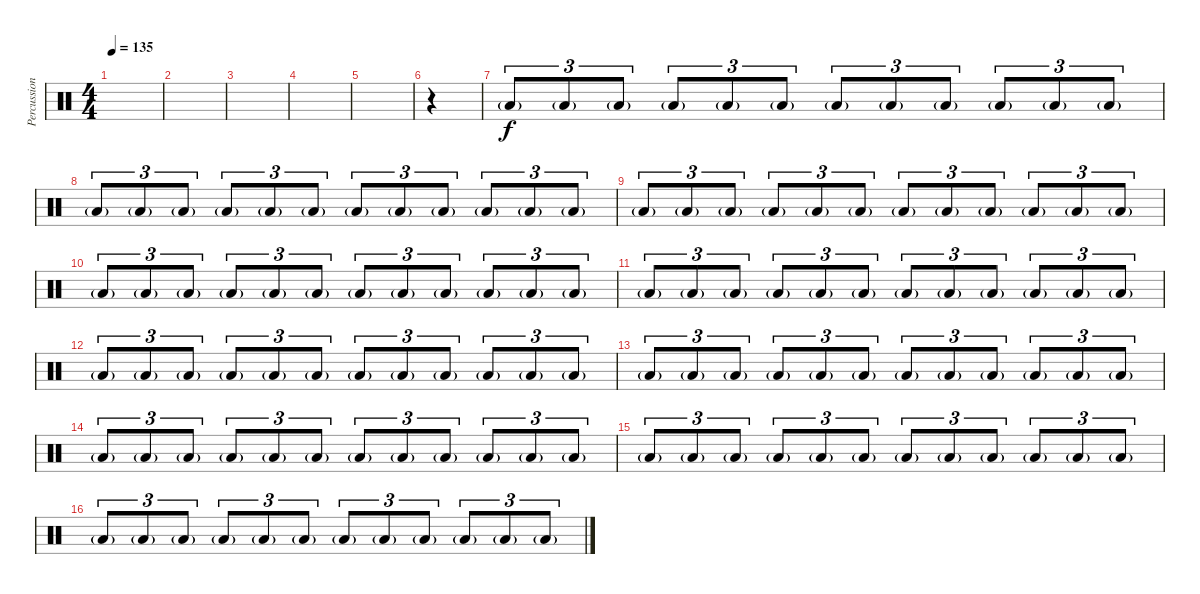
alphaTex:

\track ("Percussion" "Percussion") {instrument percussion}
\staff {score}
\articulation defaults
\ts (4 4)
\tempo 135
\clef neutral
\ks c
|
|
|
|
|
r.4{volume 0} |
"Low Floor Tom (hit)"{g}.8{tu (3 2) volume 10} "Low Floor Tom (hit)"{g}.8{tu (3 2)} "Low Floor Tom (hit)"{g}.8{tu (3 2)} "Low Floor Tom (hit)"{g}.8{tu (3 2)} "Low Floor Tom (hit)"{g}.8{tu (3 2)} "Low Floor Tom (hit)"{g}.8{tu (3 2)} "Low Floor Tom (hit)"{g}.8{tu (3 2)} "Low Floor Tom (hit)"{g}.8{tu (3 2)} "Low Floor Tom (hit)"{g}.8{tu (3 2)} "Low Floor Tom (hit)"{g}.8{tu (3 2)} "Low Floor Tom (hit)"{g}.8{tu (3 2)} "Low Floor Tom (hit)"{g}.8{tu (3 2)} |
"Low Floor Tom (hit)"{g}.8{tu (3 2)} "Low Floor Tom (hit)"{g}.8{tu (3 2)} "Low Floor Tom (hit)"{g}.8{tu (3 2)} "Low Floor Tom (hit)"{g}.8{tu (3 2)} "Low Floor Tom (hit)"{g}.8{tu (3 2)} "Low Floor Tom (hit)"{g}.8{tu (3 2)} "Low Floor Tom (hit)"{g}.8{tu (3 2)} "Low Floor Tom (hit)"{g}.8{tu (3 2)} "Low Floor Tom (hit)"{g}.8{tu (3 2)} "Low Floor Tom (hit)"{g}.8{tu (3 2)} "Low Floor Tom (hit)"{g}.8{tu (3 2)} "Low Floor Tom (hit)"{g}.8{tu (3 2)} |
"Low Floor Tom (hit)"{g}.8{tu (3 2) volume 16} "Low Floor Tom (hit)"{g}.8{tu (3 2)} "Low Floor Tom (hit)"{g}.8{tu (3 2)} "Low Floor Tom (hit)"{g}.8{tu (3 2)} "Low Floor Tom (hit)"{g}.8{tu (3 2)} "Low Floor Tom (hit)"{g}.8{tu (3 2)} "Low Floor Tom (hit)"{g}.8{tu (3 2)} "Low Floor Tom (hit)"{g}.8{tu (3 2)} "Low Floor Tom (hit)"{g}.8{tu (3 2)} "Low Floor Tom (hit)"{g}.8{tu (3 2)} "Low Floor Tom (hit)"{g}.8{tu (3 2)} "Low Floor Tom (hit)"{g}.8{tu (3 2)} |
"Low Floor Tom (hit)"{g}.8{tu (3 2)} "Low Floor Tom (hit)"{g}.8{tu (3 2)} "Low Floor Tom (hit)"{g}.8{tu (3 2)} "Low Floor Tom (hit)"{g}.8{tu (3 2)} "Low Floor Tom (hit)"{g}.8{tu (3 2)} "Low Floor Tom (hit)"{g}.8{tu (3 2)} "Low Floor Tom (hit)"{g}.8{tu (3 2)} "Low Floor Tom (hit)"{g}.8{tu (3 2)} "Low Floor Tom (hit)"{g}.8{tu (3 2)} "Low Floor Tom (hit)"{g}.8{tu (3 2)} "Low Floor Tom (hit)"{g}.8{tu (3 2)} "Low Floor Tom (hit)"{g}.8{tu (3 2)} |
"Low Floor Tom (hit)"{g}.8{tu (3 2)} "Low Floor Tom (hit)"{g}.8{tu (3 2)} "Low Floor Tom (hit)"{g}.8{tu (3 2)} "Low Floor Tom (hit)"{g}.8{tu (3 2)} "Low Floor Tom (hit)"{g}.8{tu (3 2)} "Low Floor Tom (hit)"{g}.8{tu (3 2)} "Low Floor Tom (hit)"{g}.8{tu (3 2)} "Low Floor Tom (hit)"{g}.8{tu (3 2)} "Low Floor Tom (hit)"{g}.8{tu (3 2)} "Low Floor Tom (hit)"{g}.8{tu (3 2)} "Low Floor Tom (hit)"{g}.8{tu (3 2)} "Low Floor Tom (hit)"{g}.8{tu (3 2)} |
"Low Floor Tom (hit)"{g}.8{tu (3 2)} "Low Floor Tom (hit)"{g}.8{tu (3 2)} "Low Floor Tom (hit)"{g}.8{tu (3 2)} "Low Floor Tom (hit)"{g}.8{tu (3 2)} "Low Floor Tom (hit)"{g}.8{tu (3 2)} "Low Floor Tom (hit)"{g}.8{tu (3 2)} "Low Floor Tom (hit)"{g}.8{tu (3 2)} "Low Floor Tom (hit)"{g}.8{tu (3 2)} "Low Floor Tom (hit)"{g}.8{tu (3 2)} "Low Floor Tom (hit)"{g}.8{tu (3 2)} "Low Floor Tom (hit)"{g}.8{tu (3 2)} "Low Floor Tom (hit)"{g}.8{tu (3 2)} |
"Low Floor Tom (hit)"{g}.8{tu (3 2)} "Low Floor Tom (hit)"{g}.8{tu (3 2)} "Low Floor Tom (hit)"{g}.8{tu (3 2)} "Low Floor Tom (hit)"{g}.8{tu (3 2)} "Low Floor Tom (hit)"{g}.8{tu (3 2)} "Low Floor Tom (hit)"{g}.8{tu (3 2)} "Low Floor Tom (hit)"{g}.8{tu (3 2)} "Low Floor Tom (hit)"{g}.8{tu (3 2)} "Low Floor Tom (hit)"{g}.8{tu (3 2)} "Low Floor Tom (hit)"{g}.8{tu (3 2)} "Low Floor Tom (hit)"{g}.8{tu (3 2)} "Low Floor Tom (hit)"{g}.8{tu (3 2)} |
"Low Floor Tom (hit)"{g}.8{tu (3 2)} "Low Floor Tom (hit)"{g}.8{tu (3 2)} "Low Floor Tom (hit)"{g}.8{tu (3 2)} "Low Floor Tom (hit)"{g}.8{tu (3 2)} "Low Floor Tom (hit)"{g}.8{tu (3 2)} "Low Floor Tom (hit)"{g}.8{tu (3 2)} "Low Floor Tom (hit)"{g}.8{tu (3 2)} "Low Floor Tom (hit)"{g}.8{tu (3 2)} "Low Floor Tom (hit)"{g}.8{tu (3 2)} "Low Floor Tom (hit)"{g}.8{tu (3 2)} "Low Floor Tom (hit)"{g}.8{tu (3 2)} "Low Floor Tom (hit)"{g}.8{tu (3 2)} |
"Low Floor Tom (hit)"{g}.8{tu (3 2)} "Low Floor Tom (hit)"{g}.8{tu (3 2)} "Low Floor Tom (hit)"{g}.8{tu (3 2)} "Low Floor Tom (hit)"{g}.8{tu (3 2)} "Low Floor Tom (hit)"{g}.8{tu (3 2)} "Low Floor Tom (hit)"{g}.8{tu (3 2)} "Low Floor Tom (hit)"{g}.8{tu (3 2)} "Low Floor Tom (hit)"{g}.8{tu (3 2)} "Low Floor Tom (hit)"{g}.8{tu (3 2)} "Low Floor Tom (hit)"{g}.8{tu (3 2)} "Low Floor Tom (hit)"{g}.8{tu (3 2)} "Low Floor Tom (hit)"{g}.8{tu (3 2)} |
"Low Floor Tom (hit)"{g}.8{tu (3 2)} "Low Floor Tom (hit)"{g}.8{tu (3 2)} "Low Floor Tom (hit)"{g}.8{tu (3 2)} "Low Floor Tom (hit)"{g}.8{tu (3 2)} "Low Floor Tom (hit)"{g}.8{tu (3 2)} "Low Floor Tom (hit)"{g}.8{tu (3 2)} "Low Floor Tom (hit)"{g}.8{tu (3 2)} "Low Floor Tom (hit)"{g}.8{tu (3 2)} "Low Floor Tom (hit)"{g}.8{tu (3 2)} "Low Floor Tom (hit)"{g}.8{tu (3 2)} "Low Floor Tom (hit)"{g}.8{tu (3 2)} "Low Floor Tom (hit)"{g}.8{tu (3 2)}
